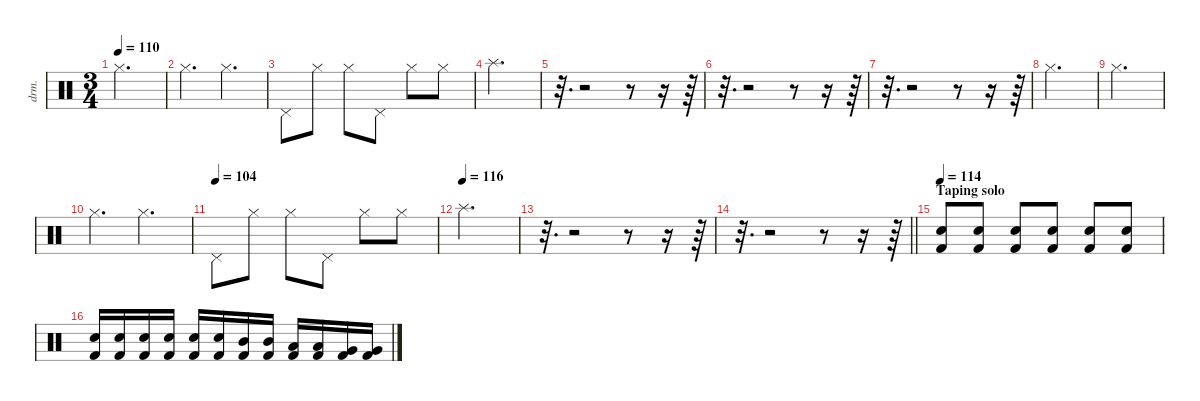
\defaultSystemsLayout 4
\hideDynamics
\bracketExtendMode nobrackets
\otherSystemsTrackNameOrientation horizontal
\track ("Drums" "drm.") {instrument percussion}
\staff {score}
\articulation defaults
\ts (3 4)
\tempo 110
\clef neutral
\ks c "Hi-Hat (closed)".2{d dy f}
|
"Hi-Hat (closed)".4{d} "Hi-Hat (closed)".4{d} |
"Pedal Hi-Hat (hit)".8 "Hi-Hat (closed)".8 "Hi-Hat (closed)".8 "Pedal Hi-Hat (hit)".8 "Hi-Hat (closed)".8 "Hi-Hat (closed)".8 |
"Splash (hit)".2{d} |
r.32{d} r.2 r.8 r.16 r.64 |
r.32{d} r.2 r.8 r.16 r.64 |
r.32{d} r.2 r.8 r.16 r.64 |
"Hi-Hat (closed)".2{d} |
"Hi-Hat (closed)".2{d} |
"Hi-Hat (closed)".4{d} "Hi-Hat (closed)".4{d} |
\tempo (104)
"Pedal Hi-Hat (hit)".8 "Hi-Hat (closed)".8 "Hi-Hat (closed)".8 "Pedal Hi-Hat (hit)".8 "Hi-Hat (closed)".8 "Hi-Hat (closed)".8 |
\tempo (116)
"Splash (hit)".2{d} |
r.32{d} r.2 r.8 r.16 r.64 |
\barLineRight lightlight
r.32{d} r.2 r.8 r.16 r.64 |
\section ("" "Taping solo")
\tempo 114
("Snare (hit) 2" "Kick (hit) 2").8 ("Snare (hit) 2" "Kick (hit) 2").8 ("Snare (hit) 2" "Kick (hit) 2").8 ("Snare (hit) 2" "Kick (hit) 2").8 ("Snare (hit) 2" "Kick (hit) 2").8 ("Snare (hit) 2" "Kick (hit) 2").8 |
("Snare (hit) 2" "Kick (hit) 2").16 ("Snare (hit) 2" "Kick (hit) 2").16 ("Snare (hit) 2" "Kick (hit) 2").16 ("Snare (hit) 2" "Kick (hit) 2").16 ("Snare (hit) 2" "Kick (hit) 2").16 ("Snare (hit) 2" "Kick (hit) 2").16 ("Mid Tom (hit)" "Kick (hit) 2").16 ("Mid Tom (hit)" "Kick (hit) 2").16 ("Low Tom (hit)" "Kick (hit) 2").16 ("Low Tom (hit)" "Kick (hit) 2").16 ("Very Low Tom (hit)" "Kick (hit) 2").16 ("Very Low Tom (hit)" "Kick (hit) 2").16
